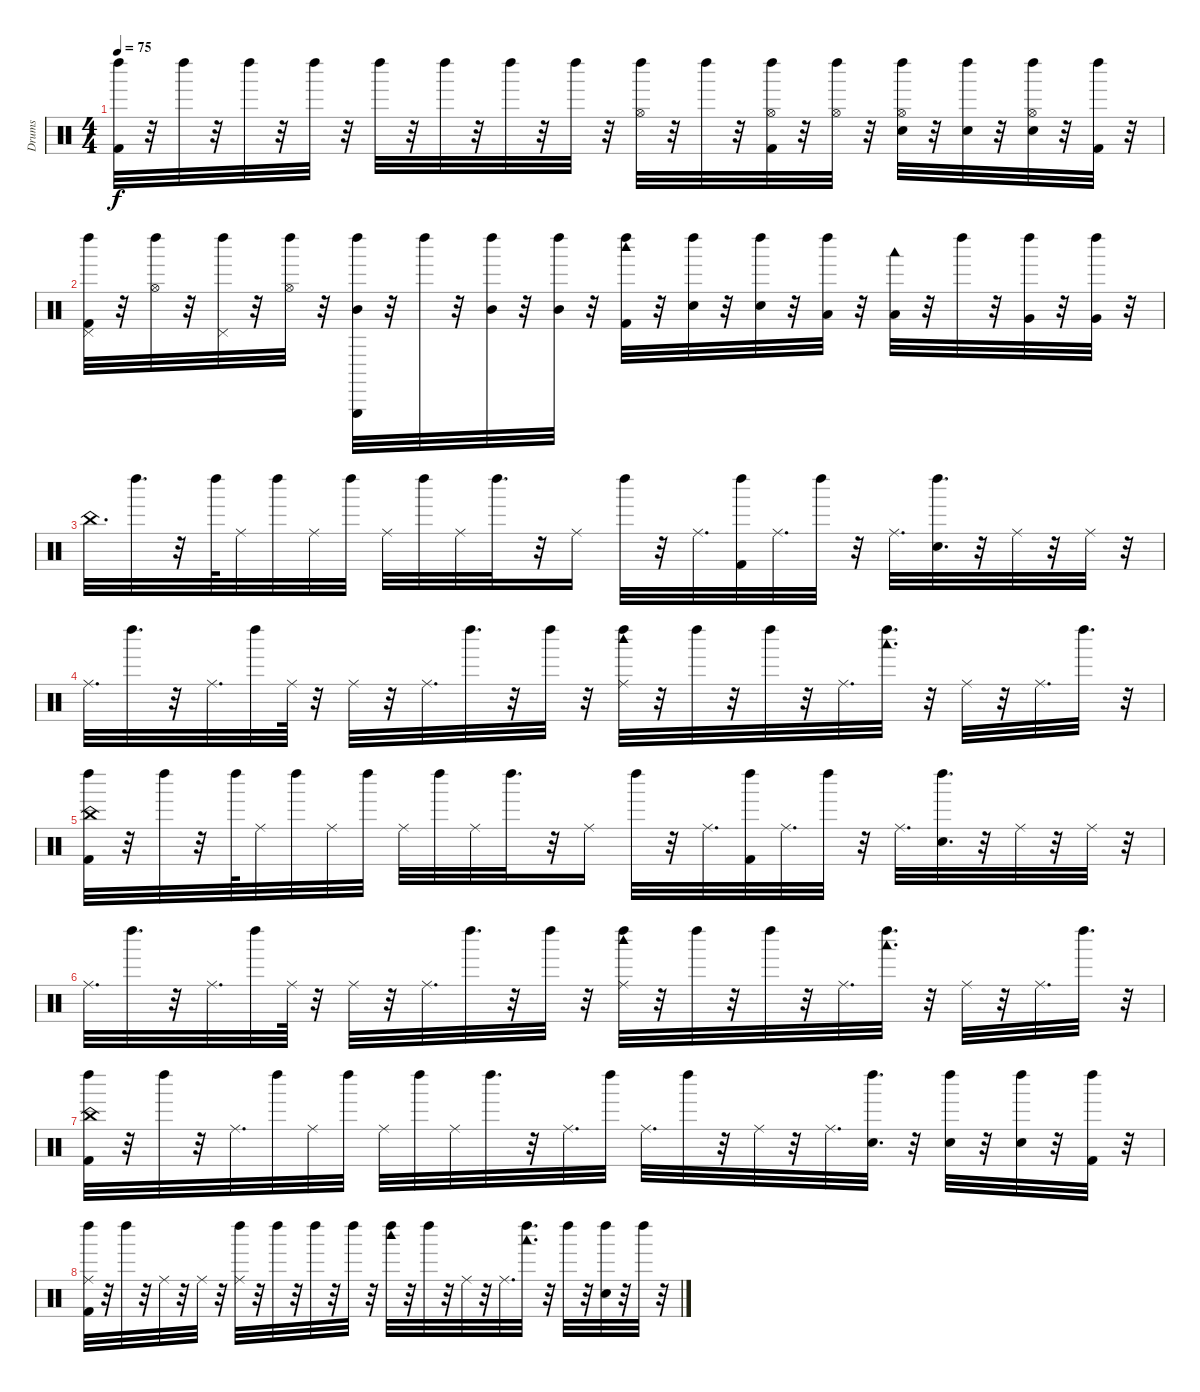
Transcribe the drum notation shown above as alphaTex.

\track ("Drums" "Drums") {instrument percussion}
\staff {score}
\articulation defaults
\ts (4 4)
\tempo 75
\clef neutral
\ks c
("Kick (hit) 2" "Left Maraca (hit)").32{dy f} r.32 "Left Maraca (hit)".32 r.32 "Left Maraca (hit)".32 r.32 "Left Maraca (hit)".32 r.32 "Left Maraca (hit)".32 r.32 "Left Maraca (hit)".32 r.32 "Left Maraca (hit)".32 r.32 "Left Maraca (hit)".32 r.32 ("Hi-Hat (open)" "Left Maraca (hit)").32 r.32 "Left Maraca (hit)".32 r.32 ("Hi-Hat (open)" "Kick (hit) 2" "Left Maraca (hit)").32 r.32 ("Hi-Hat (open)" "Left Maraca (hit)").32 r.32 ("Hi-Hat (open)" "Snare (hit) 2" "Left Maraca (hit)").32 r.32 ("Snare (hit) 2" "Left Maraca (hit)").32 r.32 ("Hi-Hat (open)" "Snare (hit) 2" "Left Maraca (hit)").32 r.32 ("Kick (hit) 2" "Left Maraca (hit)").32 r.32 |
("Pedal Hi-Hat (hit)" "Kick (hit) 2" "Left Maraca (hit)").32 r.32 ("Hi-Hat (open)" "Left Maraca (hit)").32 r.32 ("Pedal Hi-Hat (hit)" "Left Maraca (hit)").32 r.32 ("Hi-Hat (open)" "Left Maraca (hit)").32 r.32 ("Triangle (hit)" "Mid Tom (hit)" "Left Maraca (hit)").32 r.32 "Left Maraca (hit)".32 r.32 ("Mid Tom (hit)" "Left Maraca (hit)").32 r.32 ("Mid Tom (hit)" "Left Maraca (hit)").32 r.32 ("Kick (hit) 2" "Woodblock high (hit)" "Left Maraca (hit)").32 r.32 ("Snare (hit) 2" "Left Maraca (hit)").32 r.32 ("Snare (hit) 2" "Left Maraca (hit)").32 r.32 ("Low Tom (hit)" "Left Maraca (hit)").32 r.32 ("Low Tom (hit)" "Woodblock low (hit)").32 r.32 "Left Maraca (hit)".32 r.32 ("Very Low Tom (hit)" "Left Maraca (hit)").32 r.32 ("Very Low Tom (hit)" "Left Maraca (hit)").32 r.32 |
"China (hit)".32{d} "Left Maraca (hit)".32{d} r.32 "Left Maraca (hit)".64 "Ride (middle)".32 "Left Maraca (hit)".32 "Ride (middle)".32 "Left Maraca (hit)".32 "Ride (middle)".32 "Left Maraca (hit)".32 "Ride (middle)".32 "Left Maraca (hit)".32{d} r.32 "Ride (middle)".16 "Left Maraca (hit)".32 r.32 "Ride (middle)".32{d} ("Kick (hit) 2" "Left Maraca (hit)").32 "Ride (middle)".32{d} "Left Maraca (hit)".32 r.32 "Ride (middle)".32{d} ("Snare (hit) 2" "Left Maraca (hit)").32{d} r.32 "Ride (middle)".32 r.32 "Ride (middle)".32 r.32 |
"Ride (middle)".32{d} "Left Maraca (hit)".32{d} r.32 "Ride (middle)".32{d} "Left Maraca (hit)".32 "Ride (middle)".64 r.32 "Ride (middle)".32 r.32 "Ride (middle)".32{d} "Left Maraca (hit)".32{d} r.32 "Left Maraca (hit)".32 r.32 ("Ride (middle)" "Woodblock high (hit)" "Left Maraca (hit)").32 r.32 "Left Maraca (hit)".32 r.32 "Left Maraca (hit)".32 r.32 "Ride (middle)".32{d} ("Woodblock low (hit)" "Left Maraca (hit)").32{d} r.32 "Ride (middle)".32 r.32 "Ride (middle)".32{d} "Left Maraca (hit)".32{d} r.32 |
("China (hit)" "Kick (hit) 2" "Left Maraca (hit)").32 r.32 "Left Maraca (hit)".32 r.32 "Left Maraca (hit)".64 "Ride (middle)".32 "Left Maraca (hit)".32 "Ride (middle)".32 "Left Maraca (hit)".32 "Ride (middle)".32 "Left Maraca (hit)".32 "Ride (middle)".32 "Left Maraca (hit)".32{d} r.32 "Ride (middle)".16 "Left Maraca (hit)".32 r.32 "Ride (middle)".32{d} ("Kick (hit) 2" "Left Maraca (hit)").32 "Ride (middle)".32{d} "Left Maraca (hit)".32 r.32 "Ride (middle)".32{d} ("Snare (hit) 2" "Left Maraca (hit)").32{d} r.32 "Ride (middle)".32 r.32 "Ride (middle)".32 r.32 |
"Ride (middle)".32{d} "Left Maraca (hit)".32{d} r.32 "Ride (middle)".32{d} "Left Maraca (hit)".32 "Ride (middle)".64 r.32 "Ride (middle)".32 r.32 "Ride (middle)".32{d} "Left Maraca (hit)".32{d} r.32 "Left Maraca (hit)".32 r.32 ("Ride (middle)" "Woodblock high (hit)" "Left Maraca (hit)").32 r.32 "Left Maraca (hit)".32 r.32 "Left Maraca (hit)".32 r.32 "Ride (middle)".32{d} ("Woodblock low (hit)" "Left Maraca (hit)").32{d} r.32 "Ride (middle)".32 r.32 "Ride (middle)".32{d} "Left Maraca (hit)".32{d} r.32 |
("China (hit)" "Kick (hit) 2" "Left Maraca (hit)").32 r.32 "Left Maraca (hit)".32 r.32 "Ride (middle)".32{d} "Left Maraca (hit)".32 "Ride (middle)".32 "Left Maraca (hit)".32 "Ride (middle)".32 "Left Maraca (hit)".32 "Ride (middle)".32 "Left Maraca (hit)".32{d} r.32 "Ride (middle)".32{d} "Left Maraca (hit)".32 "Ride (middle)".32{d} "Left Maraca (hit)".32 r.32 "Ride (middle)".32 r.32 "Ride (middle)".32{d} ("Snare (hit) 2" "Left Maraca (hit)").32{d} r.32 ("Snare (hit) 2" "Left Maraca (hit)").32 r.32 ("Snare (hit) 2" "Left Maraca (hit)").32 r.32 ("Kick (hit) 2" "Left Maraca (hit)").32 r.32 |
("Ride (middle)" "Kick (hit) 2" "Left Maraca (hit)").32 r.32 "Left Maraca (hit)".32 r.32 "Ride (middle)".32 r.32 "Ride (middle)".32 r.32 ("Ride (middle)" "Left Maraca (hit)").32 r.32 "Left Maraca (hit)".32 r.32 "Left Maraca (hit)".32 r.32 "Left Maraca (hit)".32 r.32 ("Woodblock high (hit)" "Left Maraca (hit)").32 r.32 "Left Maraca (hit)".32 r.32 "Ride (middle)".32 r.32 "Ride (middle)".32{d} ("Woodblock low (hit)" "Left Maraca (hit)").32{d} r.32 "Left Maraca (hit)".32 r.32 ("Hand Clap (hit)" "Left Maraca (hit)").32 r.32 "Left Maraca (hit)".32 r.32
